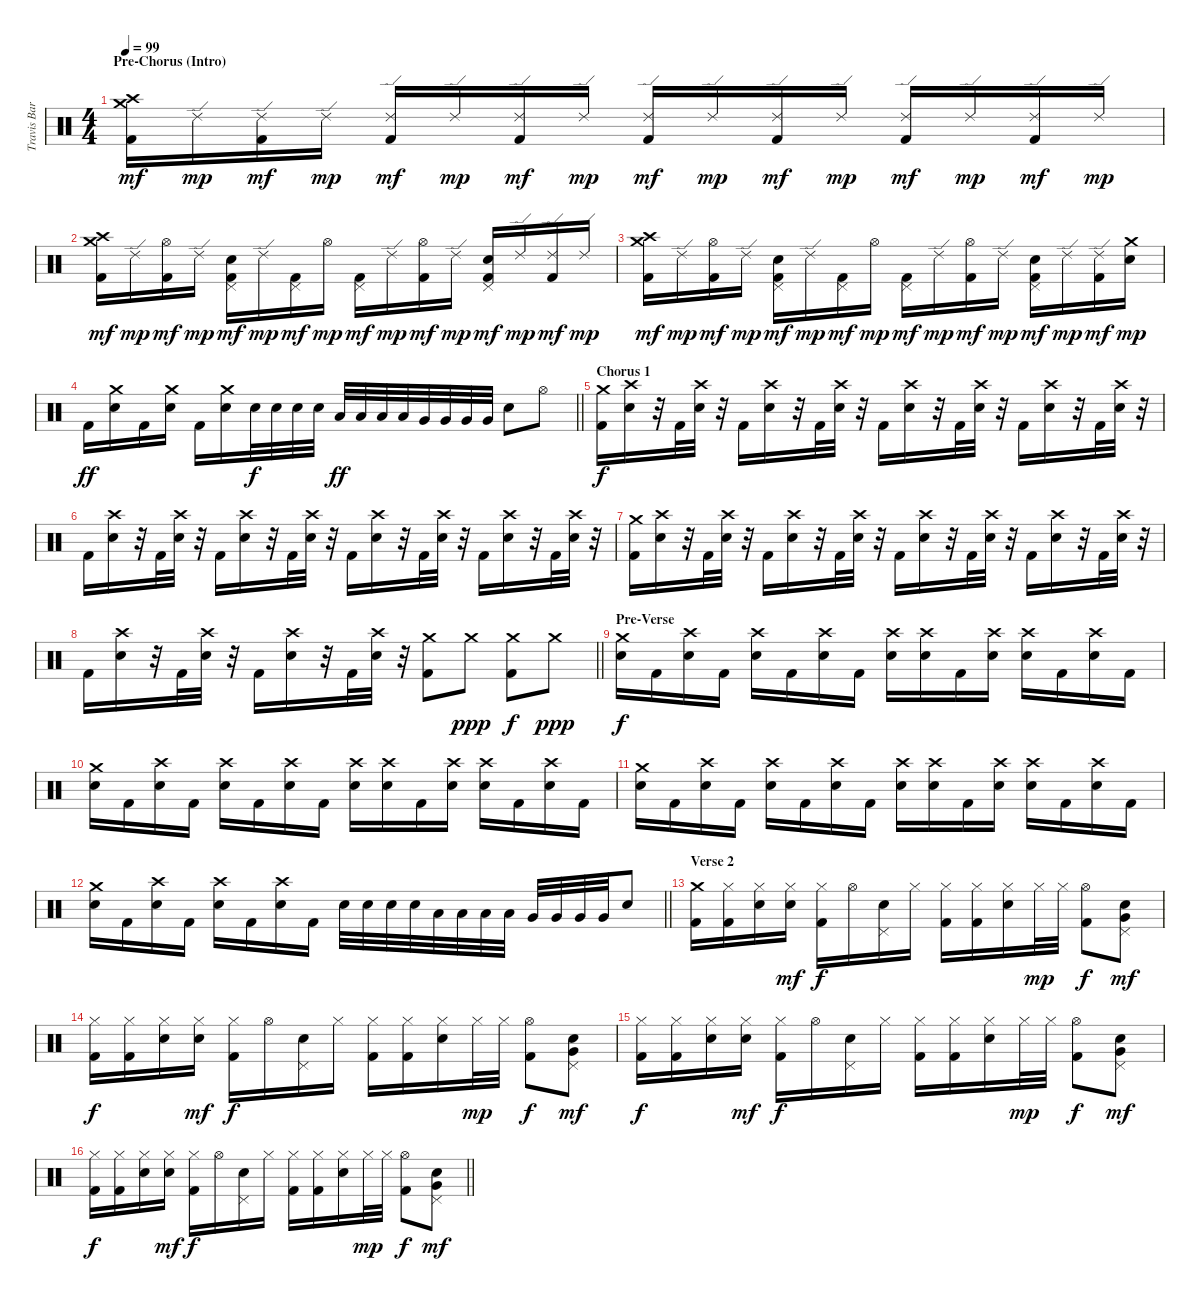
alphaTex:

\track ("Travis Barker" "Travis Bar") {instrument percussion}
\staff {score}
\articulation defaults
\ts (4 4)
\section ("" "Pre-Chorus (Intro)")
\tempo 99
\clef neutral
\ks c
("Crash medium (hit)" "Crash high (hit)" "Kick (hit) 2").16{dy mf} "Ride (edge) 2".16{dy mp} ("Ride (edge) 2" "Kick (hit) 2").16{dy mf} "Ride (edge) 2".16{dy mp} ("Ride (edge) 2" "Kick (hit) 2").16{dy mf} "Ride (edge) 2".16{dy mp} ("Ride (edge) 2" "Kick (hit) 2").16{dy mf} "Ride (edge) 2".16{dy mp} ("Ride (edge) 2" "Kick (hit) 2").16{dy mf} "Ride (edge) 2".16{dy mp} ("Ride (edge) 2" "Kick (hit) 2").16{dy mf} "Ride (edge) 2".16{dy mp} ("Ride (edge) 2" "Kick (hit) 2").16{dy mf} "Ride (edge) 2".16{dy mp} ("Ride (edge) 2" "Kick (hit) 2").16{dy mf} "Ride (edge) 2".16{dy mp} |
("Crash medium (hit)" "Crash high (hit)" "Kick (hit) 2").16{dy mf} "Ride (edge) 2".16{dy mp} ("Hi-Hat (open)" "Kick (hit) 2").16{dy mf} "Ride (edge) 2".16{dy mp} ("Pedal Hi-Hat (hit)" "Electric Snare (hit)" "Kick (hit) 2").16{dy mf} "Ride (edge) 2".16{dy mp} ("Pedal Hi-Hat (hit)" "Kick (hit) 2").16{dy mf} "Hi-Hat (open)".16{dy mp} ("Pedal Hi-Hat (hit)" "Kick (hit) 2").16{dy mf} "Ride (edge) 2".16{dy mp} ("Hi-Hat (open)" "Kick (hit) 2").16{dy mf} "Ride (edge) 2".16{dy mp} ("Pedal Hi-Hat (hit)" "Electric Snare (hit)" "Kick (hit) 2").16{dy mf} "Ride (edge) 2".16{dy mp} ("Ride (edge) 2" "Kick (hit) 2").16{dy mf} "Ride (edge) 2".16{dy mp} |
("Crash medium (hit)" "Crash high (hit)" "Kick (hit) 2").16{dy mf} "Ride (edge) 2".16{dy mp} ("Hi-Hat (open)" "Kick (hit) 2").16{dy mf} "Ride (edge) 2".16{dy mp} ("Pedal Hi-Hat (hit)" "Electric Snare (hit)" "Kick (hit) 2").16{dy mf} "Ride (edge) 2".16{dy mp} ("Pedal Hi-Hat (hit)" "Kick (hit) 2").16{dy mf} "Hi-Hat (open)".16{dy mp} ("Pedal Hi-Hat (hit)" "Kick (hit) 2").16{dy mf} "Ride (edge) 2".16{dy mp} ("Hi-Hat (open)" "Kick (hit) 2").16{dy mf} "Ride (edge) 2".16{dy mp} ("Pedal Hi-Hat (hit)" "Electric Snare (hit)" "Kick (hit) 2").16{dy mf} "Ride (edge) 2".16{dy mp} ("Ride (edge) 2" "Kick (hit) 2").16{dy mf} ("Crash medium (hit)" "Electric Snare (hit)").16{dy mp} |
\barLineRight lightlight "Kick (hit) 2".16{dy ff}
("Crash medium (hit)" "Electric Snare (hit)").16 "Kick (hit) 2".16 ("Crash medium (hit)" "Electric Snare (hit)").16 "Kick (hit) 2".16 ("Crash medium (hit)" "Electric Snare (hit)").16 "Electric Snare (hit)".32{dy f} "Electric Snare (hit)".32 "Electric Snare (hit)".32 "Electric Snare (hit)".32 "Low Tom (hit)".32{dy ff} "Low Tom (hit)".32 "Low Tom (hit)".32 "Low Tom (hit)".32 "Very Low Tom (hit)".32 "Very Low Tom (hit)".32 "Very Low Tom (hit)".32 "Very Low Tom (hit)".32 "Electric Snare (hit)".8 "Hi-Hat (open)".8 |
\section ("" "Chorus 1")
("Crash medium (hit)" "Kick (hit) 2").16{dy f} ("Crash high (hit)" "Electric Snare (hit)").16 r.32 "Kick (hit) 2".32 ("Crash high (hit)" "Electric Snare (hit)").32 r.32 "Kick (hit) 2".16 ("Crash high (hit)" "Electric Snare (hit)").16 r.32 "Kick (hit) 2".32 ("Crash high (hit)" "Electric Snare (hit)").32 r.32 "Kick (hit) 2".16 ("Crash high (hit)" "Electric Snare (hit)").16 r.32 "Kick (hit) 2".32 ("Crash high (hit)" "Electric Snare (hit)").32 r.32 "Kick (hit) 2".16 ("Crash high (hit)" "Electric Snare (hit)").16 r.32 "Kick (hit) 2".32 ("Crash high (hit)" "Electric Snare (hit)").32 r.32 |
"Kick (hit) 2".16 ("Crash high (hit)" "Electric Snare (hit)").16 r.32 "Kick (hit) 2".32 ("Crash high (hit)" "Electric Snare (hit)").32 r.32 "Kick (hit) 2".16 ("Crash high (hit)" "Electric Snare (hit)").16 r.32 "Kick (hit) 2".32 ("Crash high (hit)" "Electric Snare (hit)").32 r.32 "Kick (hit) 2".16 ("Crash high (hit)" "Electric Snare (hit)").16 r.32 "Kick (hit) 2".32 ("Crash high (hit)" "Electric Snare (hit)").32 r.32 "Kick (hit) 2".16 ("Crash high (hit)" "Electric Snare (hit)").16 r.32 "Kick (hit) 2".32 ("Crash high (hit)" "Electric Snare (hit)").32 r.32 |
("Crash medium (hit)" "Kick (hit) 2").16 ("Crash high (hit)" "Electric Snare (hit)").16 r.32 "Kick (hit) 2".32 ("Crash high (hit)" "Electric Snare (hit)").32 r.32 "Kick (hit) 2".16 ("Crash high (hit)" "Electric Snare (hit)").16 r.32 "Kick (hit) 2".32 ("Crash high (hit)" "Electric Snare (hit)").32 r.32 "Kick (hit) 2".16 ("Crash high (hit)" "Electric Snare (hit)").16 r.32 "Kick (hit) 2".32 ("Crash high (hit)" "Electric Snare (hit)").32 r.32 "Kick (hit) 2".16 ("Crash high (hit)" "Electric Snare (hit)").16 r.32 "Kick (hit) 2".32 ("Crash high (hit)" "Electric Snare (hit)").32 r.32 |
\barLineRight lightlight "Kick (hit) 2".16
("Crash high (hit)" "Electric Snare (hit)").16 r.32 "Kick (hit) 2".32 ("Crash high (hit)" "Electric Snare (hit)").32 r.32 "Kick (hit) 2".16 ("Crash high (hit)" "Electric Snare (hit)").16 r.32 "Kick (hit) 2".32 ("Crash high (hit)" "Electric Snare (hit)").32 r.32 ("Crash medium (hit)" "Kick (hit) 2").8 "Crash medium (hit)".8{dy ppp} ("Crash medium (hit)" "Kick (hit) 2").8{dy f} "Crash medium (hit)".8{dy ppp} |
\section ("" "Pre-Verse")
("Crash medium (hit)" "Electric Snare (hit)").16{dy f} "Kick (hit) 2".16 ("Crash high (hit)" "Electric Snare (hit)").16 "Kick (hit) 2".16 ("Crash high (hit)" "Electric Snare (hit)").16 "Kick (hit) 2".16 ("Crash high (hit)" "Electric Snare (hit)").16 "Kick (hit) 2".16 ("Crash high (hit)" "Electric Snare (hit)").16 ("Crash high (hit)" "Electric Snare (hit)").16 "Kick (hit) 2".16 ("Crash high (hit)" "Electric Snare (hit)").16 ("Crash high (hit)" "Electric Snare (hit)").16 "Kick (hit) 2".16 ("Crash high (hit)" "Electric Snare (hit)").16 "Kick (hit) 2".16 |
("Crash medium (hit)" "Electric Snare (hit)").16 "Kick (hit) 2".16 ("Crash high (hit)" "Electric Snare (hit)").16 "Kick (hit) 2".16 ("Crash high (hit)" "Electric Snare (hit)").16 "Kick (hit) 2".16 ("Crash high (hit)" "Electric Snare (hit)").16 "Kick (hit) 2".16 ("Crash high (hit)" "Electric Snare (hit)").16 ("Crash high (hit)" "Electric Snare (hit)").16 "Kick (hit) 2".16 ("Crash high (hit)" "Electric Snare (hit)").16 ("Crash high (hit)" "Electric Snare (hit)").16 "Kick (hit) 2".16 ("Crash high (hit)" "Electric Snare (hit)").16 "Kick (hit) 2".16 |
("Crash medium (hit)" "Electric Snare (hit)").16 "Kick (hit) 2".16 ("Crash high (hit)" "Electric Snare (hit)").16 "Kick (hit) 2".16 ("Crash high (hit)" "Electric Snare (hit)").16 "Kick (hit) 2".16 ("Crash high (hit)" "Electric Snare (hit)").16 "Kick (hit) 2".16 ("Crash high (hit)" "Electric Snare (hit)").16 ("Crash high (hit)" "Electric Snare (hit)").16 "Kick (hit) 2".16 ("Crash high (hit)" "Electric Snare (hit)").16 ("Crash high (hit)" "Electric Snare (hit)").16 "Kick (hit) 2".16 ("Crash high (hit)" "Electric Snare (hit)").16 "Kick (hit) 2".16 |
\barLineRight lightlight
("Crash medium (hit)" "Electric Snare (hit)").16 "Kick (hit) 2".16 ("Crash high (hit)" "Electric Snare (hit)").16 "Kick (hit) 2".16 ("Crash high (hit)" "Electric Snare (hit)").16 "Kick (hit) 2".16 ("Crash high (hit)" "Electric Snare (hit)").16 "Kick (hit) 2".16 "Electric Snare (hit)".32 "Electric Snare (hit)".32 "Electric Snare (hit)".32 "Electric Snare (hit)".32 "Low Tom (hit)".32 "Low Tom (hit)".32 "Low Tom (hit)".32 "Low Tom (hit)".32 "Very Low Tom (hit)".32 "Very Low Tom (hit)".32 "Very Low Tom (hit)".32 "Very Low Tom (hit)".32 "Electric Snare (hit)".8 |
\section ("" "Verse 2")
("Crash medium (hit)" "Kick (hit) 2").16 ("Hi-Hat (closed)" "Kick (hit) 2").16 ("Hi-Hat (closed)" "Electric Snare (hit)").16 ("Hi-Hat (closed)" "Electric Snare (hit)").16{dy mf} ("Hi-Hat (closed)" "Kick (hit) 2").16{dy f} "Hi-Hat (open)".16 ("Pedal Hi-Hat (hit)" "Electric Snare (hit)").16 "Hi-Hat (closed)".16 ("Hi-Hat (closed)" "Kick (hit) 2").16 ("Hi-Hat (closed)" "Kick (hit) 2").16 ("Hi-Hat (closed)" "Electric Snare (hit)").16 "Hi-Hat (closed)".32{dy mp} "Hi-Hat (closed)".32 ("Hi-Hat (open)" "Kick (hit) 2").8{dy f} ("Pedal Hi-Hat (hit)" "Electric Snare (hit)" "Very Low Tom (hit)").8{dy mf} |
("Hi-Hat (closed)" "Kick (hit) 2").16{dy f} ("Hi-Hat (closed)" "Kick (hit) 2").16 ("Hi-Hat (closed)" "Electric Snare (hit)").16 ("Hi-Hat (closed)" "Electric Snare (hit)").16{dy mf} ("Hi-Hat (closed)" "Kick (hit) 2").16{dy f} "Hi-Hat (open)".16 ("Pedal Hi-Hat (hit)" "Electric Snare (hit)").16 "Hi-Hat (closed)".16 ("Hi-Hat (closed)" "Kick (hit) 2").16 ("Hi-Hat (closed)" "Kick (hit) 2").16 ("Hi-Hat (closed)" "Electric Snare (hit)").16 "Hi-Hat (closed)".32{dy mp} "Hi-Hat (closed)".32 ("Hi-Hat (open)" "Kick (hit) 2").8{dy f} ("Pedal Hi-Hat (hit)" "Electric Snare (hit)" "Very Low Tom (hit)").8{dy mf} |
("Hi-Hat (closed)" "Kick (hit) 2").16{dy f} ("Hi-Hat (closed)" "Kick (hit) 2").16 ("Hi-Hat (closed)" "Electric Snare (hit)").16 ("Hi-Hat (closed)" "Electric Snare (hit)").16{dy mf} ("Hi-Hat (closed)" "Kick (hit) 2").16{dy f} "Hi-Hat (open)".16 ("Pedal Hi-Hat (hit)" "Electric Snare (hit)").16 "Hi-Hat (closed)".16 ("Hi-Hat (closed)" "Kick (hit) 2").16 ("Hi-Hat (closed)" "Kick (hit) 2").16 ("Hi-Hat (closed)" "Electric Snare (hit)").16 "Hi-Hat (closed)".32{dy mp} "Hi-Hat (closed)".32 ("Hi-Hat (open)" "Kick (hit) 2").8{dy f} ("Pedal Hi-Hat (hit)" "Electric Snare (hit)" "Very Low Tom (hit)").8{dy mf} |
\barLineRight lightlight
("Hi-Hat (closed)" "Kick (hit) 2").16{dy f} ("Hi-Hat (closed)" "Kick (hit) 2").16 ("Hi-Hat (closed)" "Electric Snare (hit)").16 ("Hi-Hat (closed)" "Electric Snare (hit)").16{dy mf} ("Hi-Hat (closed)" "Kick (hit) 2").16{dy f} "Hi-Hat (open)".16 ("Pedal Hi-Hat (hit)" "Electric Snare (hit)").16 "Hi-Hat (closed)".16 ("Hi-Hat (closed)" "Kick (hit) 2").16 ("Hi-Hat (closed)" "Kick (hit) 2").16 ("Hi-Hat (closed)" "Electric Snare (hit)").16 "Hi-Hat (closed)".32{dy mp} "Hi-Hat (closed)".32 ("Hi-Hat (open)" "Kick (hit) 2").8{dy f} ("Pedal Hi-Hat (hit)" "Electric Snare (hit)" "Very Low Tom (hit)").8{dy mf}
